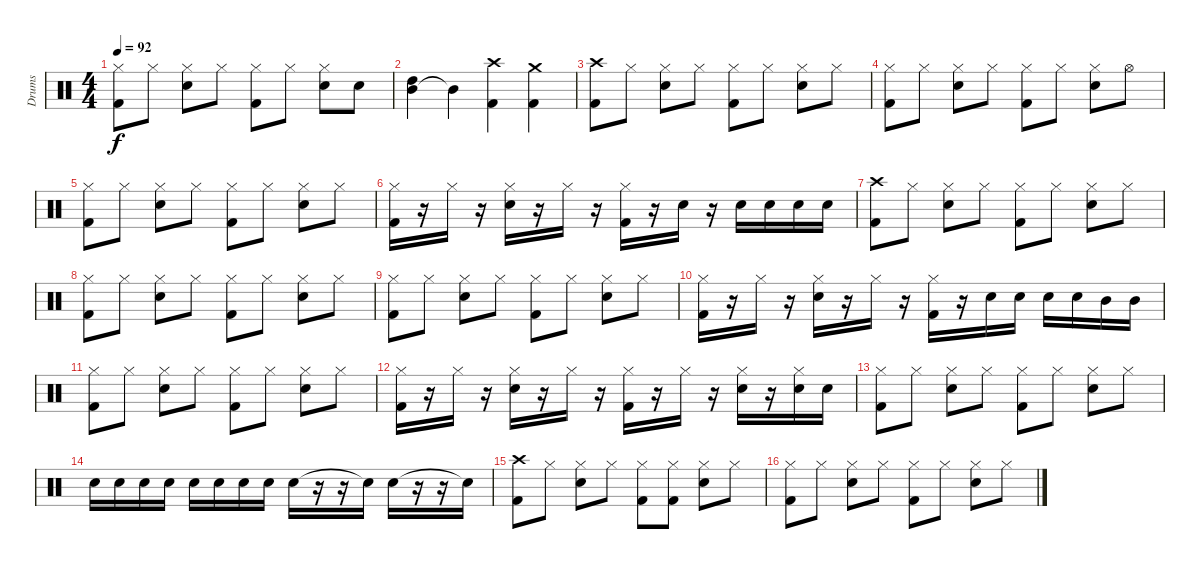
\track ("Drums" "Drums") {instrument percussion}
\staff {score}
\articulation defaults
\ts (4 4)
\tempo 92
\clef neutral
\ks c
("Hi-Hat (closed)" "Kick (hit) 2").8{dy f} "Hi-Hat (closed)".8 ("Hi-Hat (closed)" "Snare (hit) 2").8 "Hi-Hat (closed)".8 ("Hi-Hat (closed)" "Kick (hit) 2").8 "Hi-Hat (closed)".8 ("Hi-Hat (closed)" "Snare (hit) 2").8 "Snare (hit) 2".8 |
("Mid Tom (hit)" "High Tom (hit)").4 "Mid Tom (hit)"{t}.4 ("Crash high (hit)" "Kick (hit) 2").4 ("Crash medium (hit)" "Kick (hit) 2").4 |
("Crash high (hit)" "Kick (hit) 2").8 "Hi-Hat (closed)".8 ("Hi-Hat (closed)" "Snare (hit) 2").8 "Hi-Hat (closed)".8 ("Hi-Hat (closed)" "Kick (hit) 2").8 "Hi-Hat (closed)".8 ("Hi-Hat (closed)" "Snare (hit) 2").8 "Hi-Hat (closed)".8 |
("Hi-Hat (closed)" "Kick (hit) 2").8 "Hi-Hat (closed)".8 ("Hi-Hat (closed)" "Snare (hit) 2").8 "Hi-Hat (closed)".8 ("Hi-Hat (closed)" "Kick (hit) 2").8 "Hi-Hat (closed)".8 ("Hi-Hat (closed)" "Snare (hit) 2").8 "Hi-Hat (open)".8 |
("Hi-Hat (closed)" "Kick (hit) 2").8 "Hi-Hat (closed)".8 ("Hi-Hat (closed)" "Snare (hit) 2").8 "Hi-Hat (closed)".8 ("Hi-Hat (closed)" "Kick (hit) 2").8 "Hi-Hat (closed)".8 ("Hi-Hat (closed)" "Snare (hit) 2").8 "Hi-Hat (closed)".8 |
("Hi-Hat (closed)" "Kick (hit) 2").16 r.16 "Hi-Hat (closed)".16 r.16 ("Hi-Hat (closed)" "Snare (hit) 2").16 r.16 "Hi-Hat (closed)".16 r.16 ("Hi-Hat (closed)" "Kick (hit) 2").16 r.16 "Snare (hit) 2".16 r.16 "Snare (hit) 2".16 "Snare (hit) 2".16 "Snare (hit) 2".16 "Snare (hit) 2".16 |
("Crash high (hit)" "Kick (hit) 2").8 "Hi-Hat (closed)".8 ("Hi-Hat (closed)" "Snare (hit) 2").8 "Hi-Hat (closed)".8 ("Hi-Hat (closed)" "Kick (hit) 2").8 "Hi-Hat (closed)".8 ("Hi-Hat (closed)" "Snare (hit) 2").8 "Hi-Hat (closed)".8 |
("Hi-Hat (closed)" "Kick (hit) 2").8 "Hi-Hat (closed)".8 ("Hi-Hat (closed)" "Snare (hit) 2").8 "Hi-Hat (closed)".8 ("Hi-Hat (closed)" "Kick (hit) 2").8 "Hi-Hat (closed)".8 ("Hi-Hat (closed)" "Snare (hit) 2").8 "Hi-Hat (closed)".8 |
("Hi-Hat (closed)" "Kick (hit) 2").8 "Hi-Hat (closed)".8 ("Hi-Hat (closed)" "Snare (hit) 2").8 "Hi-Hat (closed)".8 ("Hi-Hat (closed)" "Kick (hit) 2").8 "Hi-Hat (closed)".8 ("Hi-Hat (closed)" "Snare (hit) 2").8 "Hi-Hat (closed)".8 |
("Hi-Hat (closed)" "Kick (hit) 2").16 r.16 "Hi-Hat (closed)".16 r.16 ("Hi-Hat (closed)" "Snare (hit) 2").16 r.16 "Hi-Hat (closed)".16 r.16 ("Hi-Hat (closed)" "Kick (hit) 2").16 r.16 "Snare (hit) 2".16 "Snare (hit) 2".16 "Snare (hit) 2".16 "Snare (hit) 2".16 "Mid Tom (hit)".16 "Mid Tom (hit)".16 |
("Hi-Hat (closed)" "Kick (hit) 2").8 "Hi-Hat (closed)".8 ("Hi-Hat (closed)" "Snare (hit) 2").8 "Hi-Hat (closed)".8 ("Hi-Hat (closed)" "Kick (hit) 2").8 "Hi-Hat (closed)".8 ("Hi-Hat (closed)" "Snare (hit) 2").8 "Hi-Hat (closed)".8 |
("Hi-Hat (closed)" "Kick (hit) 2").16 r.16 "Hi-Hat (closed)".16 r.16 ("Hi-Hat (closed)" "Snare (hit) 2").16 r.16 "Hi-Hat (closed)".16 r.16 ("Hi-Hat (closed)" "Kick (hit) 2").16 r.16 "Hi-Hat (closed)".16 r.16 ("Hi-Hat (closed)" "Snare (hit) 2").16 r.16 ("Hi-Hat (closed)" "Snare (hit) 2").16 "Snare (hit) 2".16 |
("Hi-Hat (closed)" "Kick (hit) 2").8 "Hi-Hat (closed)".8 ("Hi-Hat (closed)" "Snare (hit) 2").8 "Hi-Hat (closed)".8 ("Hi-Hat (closed)" "Kick (hit) 2").8 "Hi-Hat (closed)".8 ("Hi-Hat (closed)" "Snare (hit) 2").8 "Hi-Hat (closed)".8 |
"Snare (hit) 2".16 "Snare (hit) 2".16 "Snare (hit) 2".16 "Snare (hit) 2".16 "Snare (hit) 2".16 "Snare (hit) 2".16 "Snare (hit) 2".16 "Snare (hit) 2".16 "Snare (hit) 2".16 r.16 r.16 "Snare (hit) 2"{t}.16 "Snare (hit) 2".16 r.16 r.16 "Snare (hit) 2"{t}.16 |
("Crash high (hit)" "Kick (hit) 2").8 "Hi-Hat (closed)".8 ("Hi-Hat (closed)" "Snare (hit) 2").8 "Hi-Hat (closed)".8 ("Hi-Hat (closed)" "Kick (hit) 2").8 ("Hi-Hat (closed)" "Kick (hit) 2").8 ("Hi-Hat (closed)" "Snare (hit) 2").8 "Hi-Hat (closed)".8 |
("Hi-Hat (closed)" "Kick (hit) 2").8 "Hi-Hat (closed)".8 ("Hi-Hat (closed)" "Snare (hit) 2").8 "Hi-Hat (closed)".8 ("Hi-Hat (closed)" "Kick (hit) 2").8 "Hi-Hat (closed)".8 ("Hi-Hat (closed)" "Snare (hit) 2").8 "Hi-Hat (closed)".8
